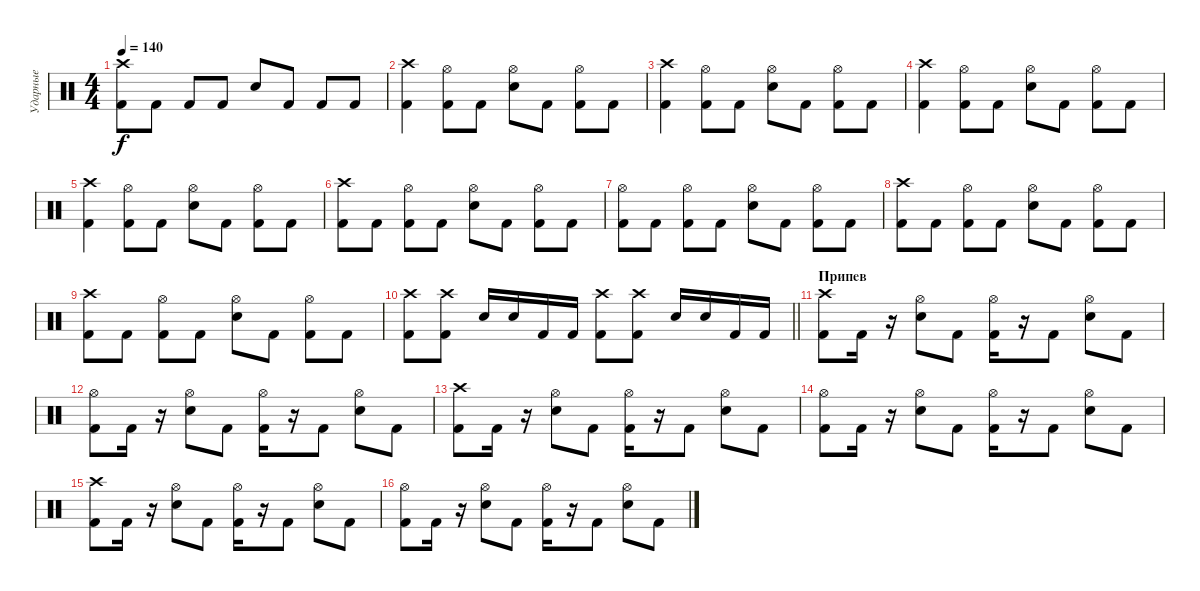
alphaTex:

\track ("Ударные" "Ударные") {instrument percussion}
\staff {score}
\articulation defaults
\ts (4 4)
\tempo 140
\clef neutral
\ks c
("Crash high (hit)" "Kick (hit) 2").8{dy f} "Kick (hit) 2".8 "Kick (hit) 2".8 "Kick (hit) 2".8 "Electric Snare (hit)".8 "Kick (hit) 2".8 "Kick (hit) 2".8 "Kick (hit) 2".8 |
("Crash high (hit)" "Kick (hit) 2").4 ("Hi-Hat (open)" "Kick (hit) 2").8 "Kick (hit) 2".8 ("Hi-Hat (open)" "Electric Snare (hit)").8 "Kick (hit) 2".8 ("Hi-Hat (open)" "Kick (hit) 2").8 "Kick (hit) 2".8 |
("Crash high (hit)" "Kick (hit) 2").4 ("Hi-Hat (open)" "Kick (hit) 2").8 "Kick (hit) 2".8 ("Hi-Hat (open)" "Electric Snare (hit)").8 "Kick (hit) 2".8 ("Hi-Hat (open)" "Kick (hit) 2").8 "Kick (hit) 2".8 |
("Crash high (hit)" "Kick (hit) 2").4 ("Hi-Hat (open)" "Kick (hit) 2").8 "Kick (hit) 2".8 ("Hi-Hat (open)" "Electric Snare (hit)").8 "Kick (hit) 2".8 ("Hi-Hat (open)" "Kick (hit) 2").8 "Kick (hit) 2".8 |
("Crash high (hit)" "Kick (hit) 2").4 ("Hi-Hat (open)" "Kick (hit) 2").8 "Kick (hit) 2".8 ("Hi-Hat (open)" "Electric Snare (hit)").8 "Kick (hit) 2".8 ("Hi-Hat (open)" "Kick (hit) 2").8 "Kick (hit) 2".8 |
("Crash high (hit)" "Kick (hit) 2").8 "Kick (hit) 2".8 ("Hi-Hat (open)" "Kick (hit) 2").8 "Kick (hit) 2".8 ("Hi-Hat (open)" "Electric Snare (hit)").8 "Kick (hit) 2".8 ("Hi-Hat (open)" "Kick (hit) 2").8 "Kick (hit) 2".8 |
("Hi-Hat (open)" "Kick (hit) 2").8 "Kick (hit) 2".8 ("Hi-Hat (open)" "Kick (hit) 2").8 "Kick (hit) 2".8 ("Hi-Hat (open)" "Electric Snare (hit)").8 "Kick (hit) 2".8 ("Hi-Hat (open)" "Kick (hit) 2").8 "Kick (hit) 2".8 |
("Crash high (hit)" "Kick (hit) 2").8 "Kick (hit) 2".8 ("Hi-Hat (open)" "Kick (hit) 2").8 "Kick (hit) 2".8 ("Hi-Hat (open)" "Electric Snare (hit)").8 "Kick (hit) 2".8 ("Hi-Hat (open)" "Kick (hit) 2").8 "Kick (hit) 2".8 |
("Crash high (hit)" "Kick (hit) 2").8 "Kick (hit) 2".8 ("Hi-Hat (open)" "Kick (hit) 2").8 "Kick (hit) 2".8 ("Hi-Hat (open)" "Electric Snare (hit)").8 "Kick (hit) 2".8 ("Hi-Hat (open)" "Kick (hit) 2").8 "Kick (hit) 2".8 |
\barLineRight lightlight
("Crash high (hit)" "Kick (hit) 2").8 ("Crash high (hit)" "Kick (hit) 2").8 "Electric Snare (hit)".16 "Electric Snare (hit)".16 "Kick (hit) 2".16 "Kick (hit) 2".16 ("Crash high (hit)" "Kick (hit) 2").8 ("Crash high (hit)" "Kick (hit) 2").8 "Electric Snare (hit)".16 "Electric Snare (hit)".16 "Kick (hit) 2".16 "Kick (hit) 2".16 |
\section ("" "Припев")
("Crash high (hit)" "Kick (hit) 2").8 "Kick (hit) 2".16 r.16 ("Hi-Hat (open)" "Electric Snare (hit)").8 "Kick (hit) 2".8 ("Hi-Hat (open)" "Kick (hit) 2").16 r.16 "Kick (hit) 2".8 ("Hi-Hat (open)" "Electric Snare (hit)").8 "Kick (hit) 2".8 |
("Hi-Hat (open)" "Kick (hit) 2").8 "Kick (hit) 2".16 r.16 ("Hi-Hat (open)" "Electric Snare (hit)").8 "Kick (hit) 2".8 ("Hi-Hat (open)" "Kick (hit) 2").16 r.16 "Kick (hit) 2".8 ("Hi-Hat (open)" "Electric Snare (hit)").8 "Kick (hit) 2".8 |
("Crash high (hit)" "Kick (hit) 2").8 "Kick (hit) 2".16 r.16 ("Hi-Hat (open)" "Electric Snare (hit)").8 "Kick (hit) 2".8 ("Hi-Hat (open)" "Kick (hit) 2").16 r.16 "Kick (hit) 2".8 ("Hi-Hat (open)" "Electric Snare (hit)").8 "Kick (hit) 2".8 |
("Hi-Hat (open)" "Kick (hit) 2").8 "Kick (hit) 2".16 r.16 ("Hi-Hat (open)" "Electric Snare (hit)").8 "Kick (hit) 2".8 ("Hi-Hat (open)" "Kick (hit) 2").16 r.16 "Kick (hit) 2".8 ("Hi-Hat (open)" "Electric Snare (hit)").8 "Kick (hit) 2".8 |
("Crash high (hit)" "Kick (hit) 2").8 "Kick (hit) 2".16 r.16 ("Hi-Hat (open)" "Electric Snare (hit)").8 "Kick (hit) 2".8 ("Hi-Hat (open)" "Kick (hit) 2").16 r.16 "Kick (hit) 2".8 ("Hi-Hat (open)" "Electric Snare (hit)").8 "Kick (hit) 2".8 |
("Hi-Hat (open)" "Kick (hit) 2").8 "Kick (hit) 2".16 r.16 ("Hi-Hat (open)" "Electric Snare (hit)").8 "Kick (hit) 2".8 ("Hi-Hat (open)" "Kick (hit) 2").16 r.16 "Kick (hit) 2".8 ("Hi-Hat (open)" "Electric Snare (hit)").8 "Kick (hit) 2".8
